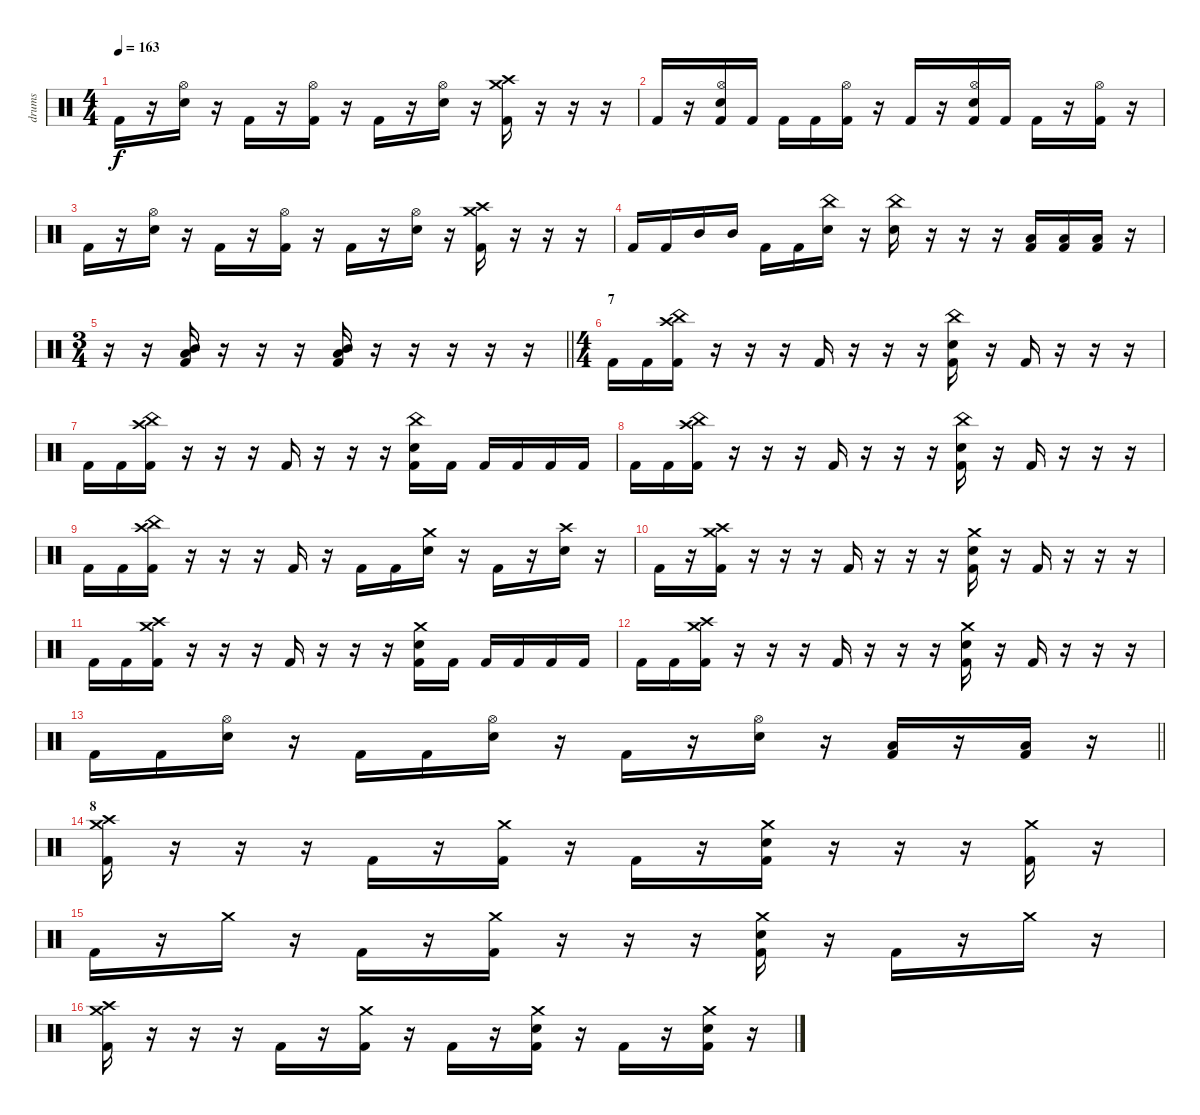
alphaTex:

\track ("drums" "drums") {instrument percussion}
\staff {score}
\articulation defaults
\ts (4 4)
\tempo 163
\clef neutral
\ks c "Kick (hit) 2".16{dy f}
r.16 ("Hi-Hat (open)" "Electric Snare (hit)").16 r.16 "Kick (hit) 2".16 r.16 ("Hi-Hat (open)" "Kick (hit) 2").16 r.16 "Kick (hit) 2".16 r.16 ("Hi-Hat (open)" "Electric Snare (hit)").16 r.16 ("Crash medium (hit)" "Crash high (hit)" "Kick (hit) 2").16 r.16 r.16 r.16 |
"Kick (hit) 2".16 r.16 ("Hi-Hat (open)" "Electric Snare (hit)" "Kick (hit) 2").16 "Kick (hit) 2".16 "Kick (hit) 2".16 "Kick (hit) 2".16 ("Hi-Hat (open)" "Kick (hit) 2").16 r.16 "Kick (hit) 2".16 r.16 ("Hi-Hat (open)" "Electric Snare (hit)" "Kick (hit) 2").16 "Kick (hit) 2".16 "Kick (hit) 2".16 r.16 ("Hi-Hat (open)" "Kick (hit) 2").16 r.16 |
"Kick (hit) 2".16 r.16 ("Hi-Hat (open)" "Electric Snare (hit)").16 r.16 "Kick (hit) 2".16 r.16 ("Hi-Hat (open)" "Kick (hit) 2").16 r.16 "Kick (hit) 2".16 r.16 ("Hi-Hat (open)" "Electric Snare (hit)").16 r.16 ("Crash medium (hit)" "Crash high (hit)" "Kick (hit) 2").16 r.16 r.16 r.16 |
"Kick (hit) 2".16 "Kick (hit) 2".16 "Mid Tom (hit)".16 "Mid Tom (hit)".16 "Kick (hit) 2".16 "Kick (hit) 2".16 ("China (hit)" "Electric Snare (hit)").16 r.16 ("China (hit)" "Electric Snare (hit)").16 r.16 r.16 r.16 ("Low Floor Tom (hit)" "Kick (hit) 2").16 ("Low Floor Tom (hit)" "Kick (hit) 2").16 ("Low Floor Tom (hit)" "Kick (hit) 2").16 r.16 |
\ts (3 4)
\barLineRight lightlight
r.16 r.16 ("Low Floor Tom (hit)" "Mid Tom (hit)" "Kick (hit) 2").16 r.16 r.16 r.16 ("Low Floor Tom (hit)" "Mid Tom (hit)" "Kick (hit) 2").16 r.16 r.16 r.16 r.16 r.16 |
\ts (4 4)
\section ("" "7")
"Kick (hit) 2".16 "Kick (hit) 2".16 ("China (hit)" "Crash high (hit)" "Kick (hit) 2").16 r.16 r.16 r.16 "Kick (hit) 2".16 r.16 r.16 r.16 ("China (hit)" "Electric Snare (hit)" "Kick (hit) 2").16 r.16 "Kick (hit) 2".16 r.16 r.16 r.16 |
"Kick (hit) 2".16 "Kick (hit) 2".16 ("China (hit)" "Crash high (hit)" "Kick (hit) 2").16 r.16 r.16 r.16 "Kick (hit) 2".16 r.16 r.16 r.16 ("China (hit)" "Electric Snare (hit)" "Kick (hit) 2").16 "Kick (hit) 2".16 "Kick (hit) 2".16 "Kick (hit) 2".16 "Kick (hit) 2".16 "Kick (hit) 2".16 |
"Kick (hit) 2".16 "Kick (hit) 2".16 ("China (hit)" "Crash high (hit)" "Kick (hit) 2").16 r.16 r.16 r.16 "Kick (hit) 2".16 r.16 r.16 r.16 ("China (hit)" "Electric Snare (hit)" "Kick (hit) 2").16 r.16 "Kick (hit) 2".16 r.16 r.16 r.16 |
"Kick (hit) 2".16 "Kick (hit) 2".16 ("China (hit)" "Crash high (hit)" "Kick (hit) 2").16 r.16 r.16 r.16 "Kick (hit) 2".16 r.16 "Kick (hit) 2".16 "Kick (hit) 2".16 ("Crash medium (hit)" "Electric Snare (hit)").16 r.16 "Kick (hit) 2".16 r.16 ("Crash high (hit)" "Electric Snare (hit)").16 r.16 |
"Kick (hit) 2".16 r.16 ("Crash medium (hit)" "Crash high (hit)" "Kick (hit) 2").16 r.16 r.16 r.16 "Kick (hit) 2".16 r.16 r.16 r.16 ("Crash medium (hit)" "Electric Snare (hit)" "Kick (hit) 2").16 r.16 "Kick (hit) 2".16 r.16 r.16 r.16 |
"Kick (hit) 2".16 "Kick (hit) 2".16 ("Crash medium (hit)" "Crash high (hit)" "Kick (hit) 2").16 r.16 r.16 r.16 "Kick (hit) 2".16 r.16 r.16 r.16 ("Crash medium (hit)" "Electric Snare (hit)" "Kick (hit) 2").16 "Kick (hit) 2".16 "Kick (hit) 2".16 "Kick (hit) 2".16 "Kick (hit) 2".16 "Kick (hit) 2".16 |
"Kick (hit) 2".16 "Kick (hit) 2".16 ("Crash medium (hit)" "Crash high (hit)" "Kick (hit) 2").16 r.16 r.16 r.16 "Kick (hit) 2".16 r.16 r.16 r.16 ("Crash medium (hit)" "Electric Snare (hit)" "Kick (hit) 2").16 r.16 "Kick (hit) 2".16 r.16 r.16 r.16 |
\barLineRight lightlight "Kick (hit) 2".16 "Kick (hit) 2".16
("Hi-Hat (open)" "Electric Snare (hit)").16 r.16 "Kick (hit) 2".16 "Kick (hit) 2".16 ("Hi-Hat (open)" "Electric Snare (hit)").16 r.16 "Kick (hit) 2".16 r.16 ("Hi-Hat (open)" "Electric Snare (hit)").16 r.16 ("Low Floor Tom (hit)" "Kick (hit) 2").16 r.16 ("Low Floor Tom (hit)" "Kick (hit) 2").16 r.16 |
\section ("" "8")
("Crash medium (hit)" "Crash high (hit)" "Kick (hit) 2").16 r.16 r.16 r.16 "Kick (hit) 2".16 r.16 ("Crash medium (hit)" "Kick (hit) 2").16 r.16 "Kick (hit) 2".16 r.16 ("Crash medium (hit)" "Electric Snare (hit)" "Kick (hit) 2").16 r.16 r.16 r.16 ("Crash medium (hit)" "Kick (hit) 2").16 r.16 |
"Kick (hit) 2".16 r.16 "Crash medium (hit)".16 r.16 "Kick (hit) 2".16 r.16 ("Crash medium (hit)" "Kick (hit) 2").16 r.16 r.16 r.16 ("Crash medium (hit)" "Electric Snare (hit)" "Kick (hit) 2").16 r.16 "Kick (hit) 2".16 r.16 "Crash medium (hit)".16 r.16 |
("Crash medium (hit)" "Crash high (hit)" "Kick (hit) 2").16 r.16 r.16 r.16 "Kick (hit) 2".16 r.16 ("Crash medium (hit)" "Kick (hit) 2").16 r.16 "Kick (hit) 2".16 r.16 ("Crash medium (hit)" "Electric Snare (hit)" "Kick (hit) 2").16 r.16 "Kick (hit) 2".16 r.16 ("Crash medium (hit)" "Electric Snare (hit)" "Kick (hit) 2").16 r.16
